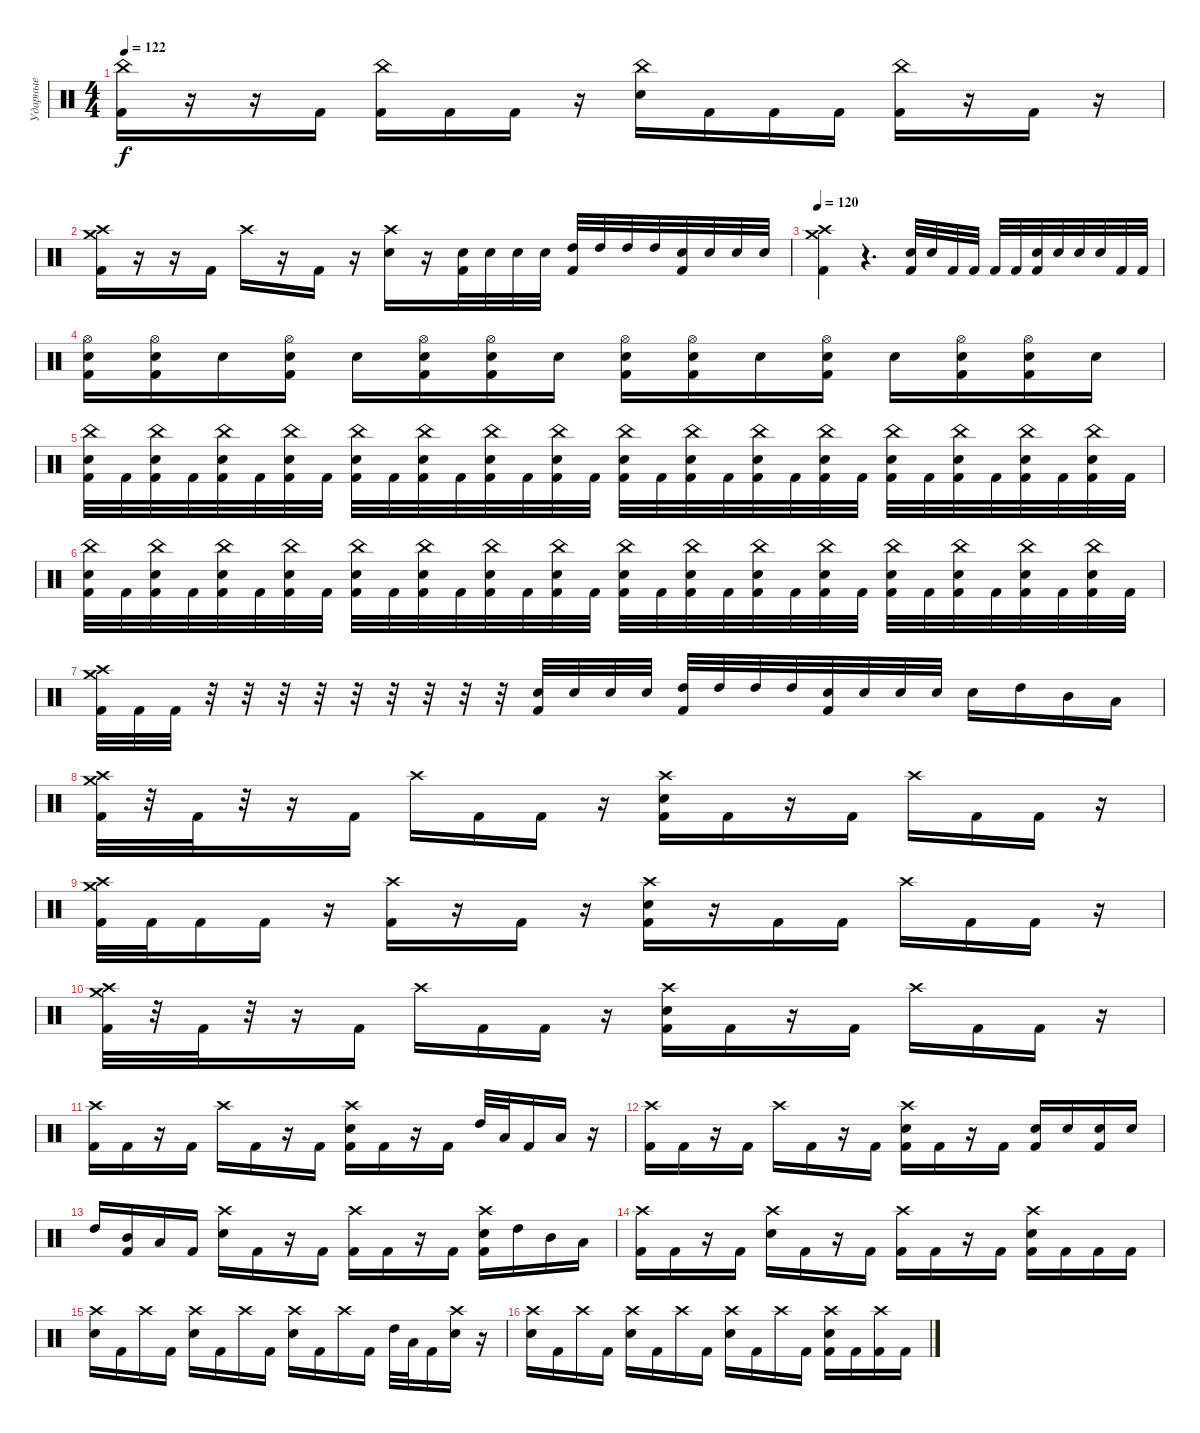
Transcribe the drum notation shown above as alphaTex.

\track ("Ударные" "Ударные") {instrument percussion}
\staff {score}
\articulation defaults
\ts (4 4)
\tempo 122
\clef neutral
\ks c
("China (hit)" "Kick (hit) 2").16{dy f} r.16 r.16 "Kick (hit) 2".16 ("China (hit)" "Kick (hit) 2").16 "Kick (hit) 2".16 "Kick (hit) 2".16 r.16 ("China (hit)" "Electric Snare (hit)").16 "Kick (hit) 2".16 "Kick (hit) 2".16 "Kick (hit) 2".16 ("China (hit)" "Kick (hit) 2").16 r.16 "Kick (hit) 2".16 r.16 |
("Crash high (hit)" "Crash medium (hit)" "Kick (hit) 2").16 r.16 r.16 "Kick (hit) 2".16 "Crash high (hit)".16 r.16 "Kick (hit) 2".16 r.16 ("Crash high (hit)" "Electric Snare (hit)").16 r.16 ("Electric Snare (hit)" "Kick (hit) 2").32 "Electric Snare (hit)".32 "Electric Snare (hit)".32 "Electric Snare (hit)".32 ("High Tom (hit)" "Kick (hit) 2").32 "High Tom (hit)".32 "High Tom (hit)".32 "High Tom (hit)".32 ("Electric Snare (hit)" "Kick (hit) 2").32 "Electric Snare (hit)".32 "Electric Snare (hit)".32 "Electric Snare (hit)".32 |
\tempo 120
("Crash medium (hit)" "Crash high (hit)" "Kick (hit) 2").4 r.4{d} ("Electric Snare (hit)" "Kick (hit) 2").32 "Electric Snare (hit)".32 "Kick (hit) 2".32 "Kick (hit) 2".32 "Kick (hit) 2".32 "Kick (hit) 2".32 ("Electric Snare (hit)" "Kick (hit) 2").32 "Electric Snare (hit)".32 "Electric Snare (hit)".32 "Electric Snare (hit)".32 "Kick (hit) 2".32 "Kick (hit) 2".32 |
("Hi-Hat (open)" "Electric Snare (hit)" "Kick (hit) 2").16 ("Hi-Hat (open)" "Electric Snare (hit)" "Kick (hit) 2").16 "Electric Snare (hit)".16 ("Hi-Hat (open)" "Electric Snare (hit)" "Kick (hit) 2").16 "Electric Snare (hit)".16 ("Hi-Hat (open)" "Electric Snare (hit)" "Kick (hit) 2").16 ("Hi-Hat (open)" "Electric Snare (hit)" "Kick (hit) 2").16 "Electric Snare (hit)".16 ("Hi-Hat (open)" "Electric Snare (hit)" "Kick (hit) 2").16 ("Hi-Hat (open)" "Electric Snare (hit)" "Kick (hit) 2").16 "Electric Snare (hit)".16 ("Hi-Hat (open)" "Electric Snare (hit)" "Kick (hit) 2").16 "Electric Snare (hit)".16 ("Hi-Hat (open)" "Electric Snare (hit)" "Kick (hit) 2").16 ("Hi-Hat (open)" "Electric Snare (hit)" "Kick (hit) 2").16 "Electric Snare (hit)".16 |
("China (hit)" "Electric Snare (hit)" "Kick (hit) 2").32 "Kick (hit) 2".32 ("China (hit)" "Electric Snare (hit)" "Kick (hit) 2").32 "Kick (hit) 2".32 ("China (hit)" "Electric Snare (hit)" "Kick (hit) 2").32 "Kick (hit) 2".32 ("China (hit)" "Electric Snare (hit)" "Kick (hit) 2").32 "Kick (hit) 2".32 ("China (hit)" "Electric Snare (hit)" "Kick (hit) 2").32 "Kick (hit) 2".32 ("China (hit)" "Electric Snare (hit)" "Kick (hit) 2").32 "Kick (hit) 2".32 ("China (hit)" "Electric Snare (hit)" "Kick (hit) 2").32 "Kick (hit) 2".32 ("China (hit)" "Electric Snare (hit)" "Kick (hit) 2").32 "Kick (hit) 2".32 ("China (hit)" "Electric Snare (hit)" "Kick (hit) 2").32 "Kick (hit) 2".32 ("China (hit)" "Electric Snare (hit)" "Kick (hit) 2").32 "Kick (hit) 2".32 ("China (hit)" "Electric Snare (hit)" "Kick (hit) 2").32 "Kick (hit) 2".32 ("China (hit)" "Electric Snare (hit)" "Kick (hit) 2").32 "Kick (hit) 2".32 ("China (hit)" "Electric Snare (hit)" "Kick (hit) 2").32 "Kick (hit) 2".32 ("China (hit)" "Electric Snare (hit)" "Kick (hit) 2").32 "Kick (hit) 2".32 ("China (hit)" "Electric Snare (hit)" "Kick (hit) 2").32 "Kick (hit) 2".32 ("China (hit)" "Electric Snare (hit)" "Kick (hit) 2").32 "Kick (hit) 2".32 |
("China (hit)" "Electric Snare (hit)" "Kick (hit) 2").32 "Kick (hit) 2".32 ("China (hit)" "Electric Snare (hit)" "Kick (hit) 2").32 "Kick (hit) 2".32 ("China (hit)" "Electric Snare (hit)" "Kick (hit) 2").32 "Kick (hit) 2".32 ("China (hit)" "Electric Snare (hit)" "Kick (hit) 2").32 "Kick (hit) 2".32 ("China (hit)" "Electric Snare (hit)" "Kick (hit) 2").32 "Kick (hit) 2".32 ("China (hit)" "Electric Snare (hit)" "Kick (hit) 2").32 "Kick (hit) 2".32 ("China (hit)" "Electric Snare (hit)" "Kick (hit) 2").32 "Kick (hit) 2".32 ("China (hit)" "Electric Snare (hit)" "Kick (hit) 2").32 "Kick (hit) 2".32 ("China (hit)" "Electric Snare (hit)" "Kick (hit) 2").32 "Kick (hit) 2".32 ("China (hit)" "Electric Snare (hit)" "Kick (hit) 2").32 "Kick (hit) 2".32 ("China (hit)" "Electric Snare (hit)" "Kick (hit) 2").32 "Kick (hit) 2".32 ("China (hit)" "Electric Snare (hit)" "Kick (hit) 2").32 "Kick (hit) 2".32 ("China (hit)" "Electric Snare (hit)" "Kick (hit) 2").32 "Kick (hit) 2".32 ("China (hit)" "Electric Snare (hit)" "Kick (hit) 2").32 "Kick (hit) 2".32 ("China (hit)" "Electric Snare (hit)" "Kick (hit) 2").32 "Kick (hit) 2".32 ("China (hit)" "Electric Snare (hit)" "Kick (hit) 2").32 "Kick (hit) 2".32 |
("Crash high (hit)" "Crash medium (hit)" "Kick (hit) 2").32 "Kick (hit) 2".32 "Kick (hit) 2".32 r.32 r.32 r.32 r.32 r.32 r.32 r.32 r.32 r.32 ("Electric Snare (hit)" "Kick (hit) 2").32 "Electric Snare (hit)".32 "Electric Snare (hit)".32 "Electric Snare (hit)".32 ("High Tom (hit)" "Kick (hit) 2").32 "High Tom (hit)".32 "High Tom (hit)".32 "High Tom (hit)".32 ("Electric Snare (hit)" "Kick (hit) 2").32 "Electric Snare (hit)".32 "Electric Snare (hit)".32 "Electric Snare (hit)".32 "Electric Snare (hit)".16 "High Tom (hit)".16 "Mid Tom (hit)".16 "Low Tom (hit)".16 |
("Crash high (hit)" "Crash medium (hit)" "Kick (hit) 2").32 r.32 "Kick (hit) 2".32 r.32 r.16 "Kick (hit) 2".16 "Crash high (hit)".16 "Kick (hit) 2".16 "Kick (hit) 2".16 r.16 ("Crash high (hit)" "Electric Snare (hit)" "Kick (hit) 2").16 "Kick (hit) 2".16 r.16 "Kick (hit) 2".16 "Crash high (hit)".16 "Kick (hit) 2".16 "Kick (hit) 2".16 r.16 |
("Crash high (hit)" "Crash medium (hit)" "Kick (hit) 2").32 "Kick (hit) 2".32 "Kick (hit) 2".16 "Kick (hit) 2".16 r.16 ("Crash high (hit)" "Kick (hit) 2").16 r.16 "Kick (hit) 2".16 r.16 ("Crash high (hit)" "Electric Snare (hit)" "Kick (hit) 2").16 r.16 "Kick (hit) 2".16 "Kick (hit) 2".16 "Crash high (hit)".16 "Kick (hit) 2".16 "Kick (hit) 2".16 r.16 |
("Crash high (hit)" "Crash medium (hit)" "Kick (hit) 2").32 r.32 "Kick (hit) 2".32 r.32 r.16 "Kick (hit) 2".16 "Crash high (hit)".16 "Kick (hit) 2".16 "Kick (hit) 2".16 r.16 ("Crash high (hit)" "Electric Snare (hit)" "Kick (hit) 2").16 "Kick (hit) 2".16 r.16 "Kick (hit) 2".16 "Crash high (hit)".16 "Kick (hit) 2".16 "Kick (hit) 2".16 r.16 |
("Crash high (hit)" "Kick (hit) 2").16 "Kick (hit) 2".16 r.16 "Kick (hit) 2".16 "Crash high (hit)".16 "Kick (hit) 2".16 r.16 "Kick (hit) 2".16 ("Crash high (hit)" "Electric Snare (hit)" "Kick (hit) 2").16 "Kick (hit) 2".16 r.16 "Kick (hit) 2".16 "High Tom (hit)".32 "Low Tom (hit)".32 "Kick (hit) 2".16 "Low Tom (hit)".16 r.16 |
("Crash high (hit)" "Kick (hit) 2").16 "Kick (hit) 2".16 r.16 "Kick (hit) 2".16 "Crash high (hit)".16 "Kick (hit) 2".16 r.16 "Kick (hit) 2".16 ("Crash high (hit)" "Electric Snare (hit)" "Kick (hit) 2").16 "Kick (hit) 2".16 r.16 "Kick (hit) 2".16 ("Electric Snare (hit)" "Kick (hit) 2").16 "Electric Snare (hit)".16 ("Electric Snare (hit)" "Kick (hit) 2").16 "Electric Snare (hit)".16 |
"High Tom (hit)".16 ("Mid Tom (hit)" "Kick (hit) 2").16 "Low Tom (hit)".16 "Kick (hit) 2".16 ("Crash high (hit)" "Electric Snare (hit)").16 "Kick (hit) 2".16 r.16 "Kick (hit) 2".16 ("Crash high (hit)" "Kick (hit) 2").16 "Kick (hit) 2".16 r.16 "Kick (hit) 2".16 ("Crash high (hit)" "Electric Snare (hit)" "Kick (hit) 2").16 "High Tom (hit)".16 "Mid Tom (hit)".16 "Low Tom (hit)".16 |
("Crash high (hit)" "Kick (hit) 2").16 "Kick (hit) 2".16 r.16 "Kick (hit) 2".16 ("Crash high (hit)" "Electric Snare (hit)").16 "Kick (hit) 2".16 r.16 "Kick (hit) 2".16 ("Crash high (hit)" "Kick (hit) 2").16 "Kick (hit) 2".16 r.16 "Kick (hit) 2".16 ("Crash high (hit)" "Electric Snare (hit)" "Kick (hit) 2").16 "Kick (hit) 2".16 "Kick (hit) 2".16 "Kick (hit) 2".16 |
("Crash high (hit)" "Electric Snare (hit)").16 "Kick (hit) 2".16 "Crash high (hit)".16 "Kick (hit) 2".16 ("Crash high (hit)" "Electric Snare (hit)").16 "Kick (hit) 2".16 "Crash high (hit)".16 "Kick (hit) 2".16 ("Crash high (hit)" "Electric Snare (hit)").16 "Kick (hit) 2".16 "Crash high (hit)".16 "Kick (hit) 2".16 "High Tom (hit)".32 "Low Tom (hit)".32 "Kick (hit) 2".16 ("Crash high (hit)" "Electric Snare (hit)").16 r.16 |
("Crash high (hit)" "Electric Snare (hit)").16 "Kick (hit) 2".16 "Crash high (hit)".16 "Kick (hit) 2".16 ("Crash high (hit)" "Electric Snare (hit)").16 "Kick (hit) 2".16 "Crash high (hit)".16 "Kick (hit) 2".16 ("Crash high (hit)" "Electric Snare (hit)").16 "Kick (hit) 2".16 "Crash high (hit)".16 "Kick (hit) 2".16 ("Crash high (hit)" "Electric Snare (hit)" "Kick (hit) 2").16 "Kick (hit) 2".16 ("Crash high (hit)" "Kick (hit) 2").16 "Kick (hit) 2".16
